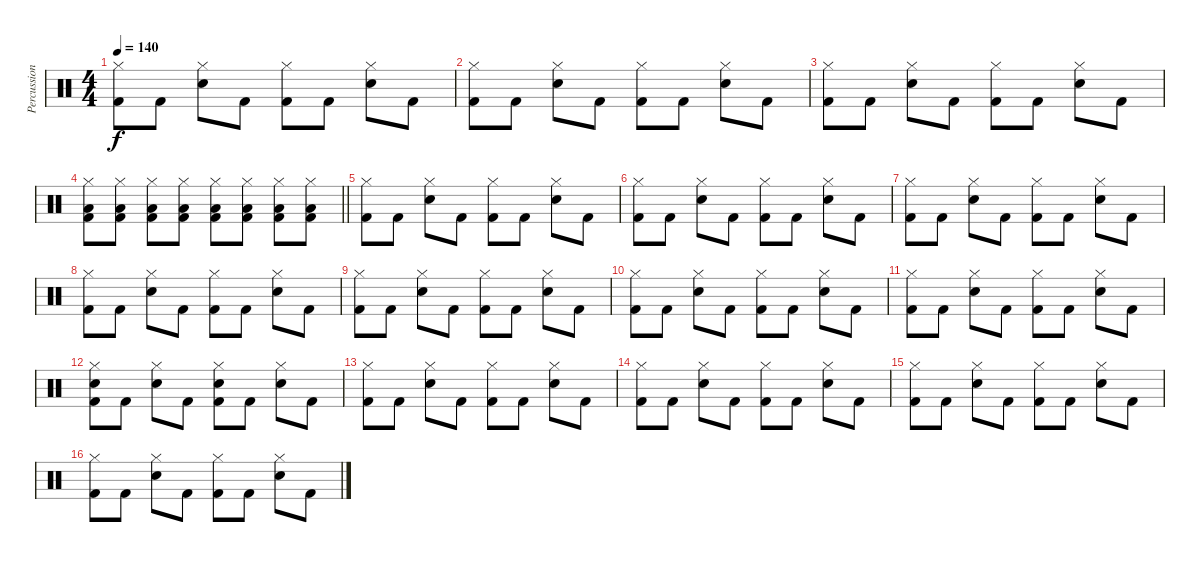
\track ("Percussion" "Percussion") {instrument percussion}
\staff {score}
\articulation defaults
\ts (4 4)
\tempo 140
\clef neutral
\ks c
("Hi-Hat (closed)" "Kick (hit) 2").8{dy f} "Kick (hit) 2".8 ("Electric Snare (hit)" "Hi-Hat (closed)").8 "Kick (hit) 2".8 ("Hi-Hat (closed)" "Kick (hit) 2").8 "Kick (hit) 2".8 ("Electric Snare (hit)" "Hi-Hat (closed)").8 "Kick (hit) 2".8 |
("Hi-Hat (closed)" "Kick (hit) 2").8 "Kick (hit) 2".8 ("Electric Snare (hit)" "Hi-Hat (closed)").8 "Kick (hit) 2".8 ("Hi-Hat (closed)" "Kick (hit) 2").8 "Kick (hit) 2".8 ("Electric Snare (hit)" "Hi-Hat (closed)").8 "Kick (hit) 2".8 |
("Hi-Hat (closed)" "Kick (hit) 2").8 "Kick (hit) 2".8 ("Electric Snare (hit)" "Hi-Hat (closed)").8 "Kick (hit) 2".8 ("Hi-Hat (closed)" "Kick (hit) 2").8 "Kick (hit) 2".8 ("Electric Snare (hit)" "Hi-Hat (closed)").8 "Kick (hit) 2".8 |
\barLineRight lightlight
("Hi-Hat (closed)" "Kick (hit) 2" "Low Floor Tom (hit)").8 ("Hi-Hat (closed)" "Kick (hit) 2" "Low Floor Tom (hit)").8 ("Hi-Hat (closed)" "Kick (hit) 2" "Low Floor Tom (hit)").8 ("Hi-Hat (closed)" "Kick (hit) 2" "Low Floor Tom (hit)").8 ("Hi-Hat (closed)" "Kick (hit) 2" "Low Floor Tom (hit)").8 ("Hi-Hat (closed)" "Kick (hit) 2" "Low Floor Tom (hit)").8 ("Hi-Hat (closed)" "Kick (hit) 2" "Low Floor Tom (hit)").8 ("Hi-Hat (closed)" "Kick (hit) 2" "Low Floor Tom (hit)").8 |
("Hi-Hat (closed)" "Kick (hit) 2").8 "Kick (hit) 2".8 ("Electric Snare (hit)" "Hi-Hat (closed)").8 "Kick (hit) 2".8 ("Hi-Hat (closed)" "Kick (hit) 2").8 "Kick (hit) 2".8 ("Electric Snare (hit)" "Hi-Hat (closed)").8 "Kick (hit) 2".8 |
("Hi-Hat (closed)" "Kick (hit) 2").8 "Kick (hit) 2".8 ("Electric Snare (hit)" "Hi-Hat (closed)").8 "Kick (hit) 2".8 ("Hi-Hat (closed)" "Kick (hit) 2").8 "Kick (hit) 2".8 ("Electric Snare (hit)" "Hi-Hat (closed)").8 "Kick (hit) 2".8 |
("Hi-Hat (closed)" "Kick (hit) 2").8 "Kick (hit) 2".8 ("Electric Snare (hit)" "Hi-Hat (closed)").8 "Kick (hit) 2".8 ("Hi-Hat (closed)" "Kick (hit) 2").8 "Kick (hit) 2".8 ("Electric Snare (hit)" "Hi-Hat (closed)").8 "Kick (hit) 2".8 |
("Hi-Hat (closed)" "Kick (hit) 2").8 "Kick (hit) 2".8 ("Electric Snare (hit)" "Hi-Hat (closed)").8 "Kick (hit) 2".8 ("Hi-Hat (closed)" "Kick (hit) 2").8 "Kick (hit) 2".8 ("Electric Snare (hit)" "Hi-Hat (closed)").8 "Kick (hit) 2".8 |
("Hi-Hat (closed)" "Kick (hit) 2").8 "Kick (hit) 2".8 ("Electric Snare (hit)" "Hi-Hat (closed)").8 "Kick (hit) 2".8 ("Hi-Hat (closed)" "Kick (hit) 2").8 "Kick (hit) 2".8 ("Electric Snare (hit)" "Hi-Hat (closed)").8 "Kick (hit) 2".8 |
("Hi-Hat (closed)" "Kick (hit) 2").8 "Kick (hit) 2".8 ("Electric Snare (hit)" "Hi-Hat (closed)").8 "Kick (hit) 2".8 ("Hi-Hat (closed)" "Kick (hit) 2").8 "Kick (hit) 2".8 ("Electric Snare (hit)" "Hi-Hat (closed)").8 "Kick (hit) 2".8 |
("Hi-Hat (closed)" "Kick (hit) 2").8 "Kick (hit) 2".8 ("Electric Snare (hit)" "Hi-Hat (closed)").8 "Kick (hit) 2".8 ("Hi-Hat (closed)" "Kick (hit) 2").8 "Kick (hit) 2".8 ("Electric Snare (hit)" "Hi-Hat (closed)").8 "Kick (hit) 2".8 |
("Electric Snare (hit)" "Hi-Hat (closed)" "Kick (hit) 2").8 "Kick (hit) 2".8 ("Electric Snare (hit)" "Hi-Hat (closed)").8 "Kick (hit) 2".8 ("Electric Snare (hit)" "Hi-Hat (closed)" "Kick (hit) 2").8 "Kick (hit) 2".8 ("Electric Snare (hit)" "Hi-Hat (closed)").8 "Kick (hit) 2".8 |
("Hi-Hat (closed)" "Kick (hit) 2").8 "Kick (hit) 2".8 ("Electric Snare (hit)" "Hi-Hat (closed)").8 "Kick (hit) 2".8 ("Hi-Hat (closed)" "Kick (hit) 2").8 "Kick (hit) 2".8 ("Electric Snare (hit)" "Hi-Hat (closed)").8 "Kick (hit) 2".8 |
("Hi-Hat (closed)" "Kick (hit) 2").8 "Kick (hit) 2".8 ("Electric Snare (hit)" "Hi-Hat (closed)").8 "Kick (hit) 2".8 ("Hi-Hat (closed)" "Kick (hit) 2").8 "Kick (hit) 2".8 ("Electric Snare (hit)" "Hi-Hat (closed)").8 "Kick (hit) 2".8 |
("Hi-Hat (closed)" "Kick (hit) 2").8 "Kick (hit) 2".8 ("Electric Snare (hit)" "Hi-Hat (closed)").8 "Kick (hit) 2".8 ("Hi-Hat (closed)" "Kick (hit) 2").8 "Kick (hit) 2".8 ("Electric Snare (hit)" "Hi-Hat (closed)").8 "Kick (hit) 2".8 |
("Hi-Hat (closed)" "Kick (hit) 2").8 "Kick (hit) 2".8 ("Electric Snare (hit)" "Hi-Hat (closed)").8 "Kick (hit) 2".8 ("Hi-Hat (closed)" "Kick (hit) 2").8 "Kick (hit) 2".8 ("Electric Snare (hit)" "Hi-Hat (closed)").8 "Kick (hit) 2".8
